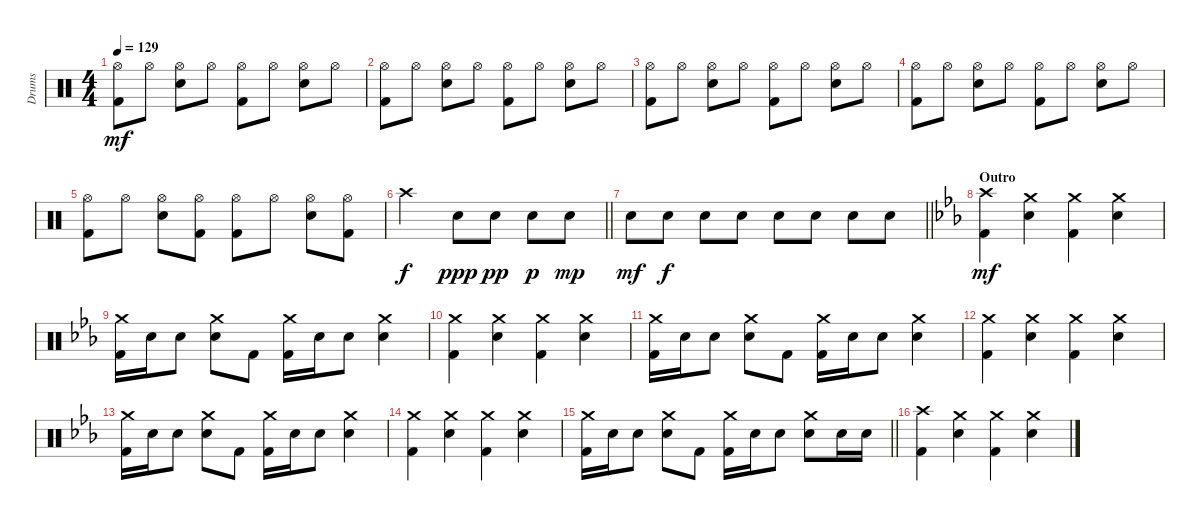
\track ("Drums" "Drums") {instrument percussion}
\staff {score}
\articulation defaults
\ts (4 4)
\tempo 129
\clef neutral
\ks c
("Hi-Hat (open)" "Kick (hit) 2").8{dy mf} "Hi-Hat (open)".8 ("Hi-Hat (open)" "Electric Snare (hit)").8 "Hi-Hat (open)".8 ("Hi-Hat (open)" "Kick (hit) 2").8 "Hi-Hat (open)".8 ("Hi-Hat (open)" "Electric Snare (hit)").8 "Hi-Hat (open)".8 |
("Hi-Hat (open)" "Kick (hit) 2").8 "Hi-Hat (open)".8 ("Hi-Hat (open)" "Electric Snare (hit)").8 "Hi-Hat (open)".8 ("Hi-Hat (open)" "Kick (hit) 2").8 "Hi-Hat (open)".8 ("Hi-Hat (open)" "Electric Snare (hit)").8 "Hi-Hat (open)".8 |
("Hi-Hat (open)" "Kick (hit) 2").8 "Hi-Hat (open)".8 ("Hi-Hat (open)" "Electric Snare (hit)").8 "Hi-Hat (open)".8 ("Hi-Hat (open)" "Kick (hit) 2").8 "Hi-Hat (open)".8 ("Hi-Hat (open)" "Electric Snare (hit)").8 "Hi-Hat (open)".8 |
("Hi-Hat (open)" "Kick (hit) 2").8 "Hi-Hat (open)".8 ("Hi-Hat (open)" "Electric Snare (hit)").8 "Hi-Hat (open)".8 ("Hi-Hat (open)" "Kick (hit) 2").8 "Hi-Hat (open)".8 ("Hi-Hat (open)" "Electric Snare (hit)").8 "Hi-Hat (open)".8 |
("Hi-Hat (open)" "Kick (hit) 2").8 "Hi-Hat (open)".8 ("Hi-Hat (open)" "Electric Snare (hit)").8 ("Hi-Hat (open)" "Kick (hit) 2").8 ("Hi-Hat (open)" "Kick (hit) 2").8 "Hi-Hat (open)".8 ("Hi-Hat (open)" "Electric Snare (hit)").8 ("Hi-Hat (open)" "Kick (hit) 2").8 |
\barLineRight lightlight "Crash high (hit)".2{dy f} "Electric Snare (hit)".8{dy ppp} "Electric Snare (hit)".8{dy pp} "Electric Snare (hit)".8{dy p} "Electric Snare (hit)".8{dy mp}
|
\barLineRight lightlight "Electric Snare (hit)".8{dy mf} "Electric Snare (hit)".8{dy f} "Electric Snare (hit)".8 "Electric Snare (hit)".8 "Electric Snare (hit)".8 "Electric Snare (hit)".8 "Electric Snare (hit)".8 "Electric Snare (hit)".8
|
\section ("" "Outro")
\ks eb
("Crash high (hit)" "Kick (hit) 2").4{dy mf} ("Crash medium (hit)" "Electric Snare (hit)").4 ("Crash medium (hit)" "Kick (hit) 2").4 ("Crash medium (hit)" "Electric Snare (hit)").4 |
("Crash medium (hit)" "Kick (hit) 2").16 "Electric Snare (hit)".16 "Electric Snare (hit)".8 ("Crash medium (hit)" "Electric Snare (hit)").8 "Kick (hit) 2".8 ("Crash medium (hit)" "Kick (hit) 2").16 "Electric Snare (hit)".16 "Electric Snare (hit)".8 ("Crash medium (hit)" "Electric Snare (hit)").4 |
("Crash medium (hit)" "Kick (hit) 2").4 ("Crash medium (hit)" "Electric Snare (hit)").4 ("Crash medium (hit)" "Kick (hit) 2").4 ("Crash medium (hit)" "Electric Snare (hit)").4 |
("Crash medium (hit)" "Kick (hit) 2").16 "Electric Snare (hit)".16 "Electric Snare (hit)".8 ("Crash medium (hit)" "Electric Snare (hit)").8 "Kick (hit) 2".8 ("Crash medium (hit)" "Kick (hit) 2").16 "Electric Snare (hit)".16 "Electric Snare (hit)".8 ("Crash medium (hit)" "Electric Snare (hit)").4 |
("Crash medium (hit)" "Kick (hit) 2").4 ("Crash medium (hit)" "Electric Snare (hit)").4 ("Crash medium (hit)" "Kick (hit) 2").4 ("Crash medium (hit)" "Electric Snare (hit)").4 |
("Crash medium (hit)" "Kick (hit) 2").16 "Electric Snare (hit)".16 "Electric Snare (hit)".8 ("Crash medium (hit)" "Electric Snare (hit)").8 "Kick (hit) 2".8 ("Crash medium (hit)" "Kick (hit) 2").16 "Electric Snare (hit)".16 "Electric Snare (hit)".8 ("Crash medium (hit)" "Electric Snare (hit)").4 |
("Crash medium (hit)" "Kick (hit) 2").4 ("Crash medium (hit)" "Electric Snare (hit)").4 ("Crash medium (hit)" "Kick (hit) 2").4 ("Crash medium (hit)" "Electric Snare (hit)").4 |
\barLineRight lightlight
("Crash medium (hit)" "Kick (hit) 2").16 "Electric Snare (hit)".16 "Electric Snare (hit)".8 ("Crash medium (hit)" "Electric Snare (hit)").8 "Kick (hit) 2".8 ("Crash medium (hit)" "Kick (hit) 2").16 "Electric Snare (hit)".16 "Electric Snare (hit)".8 ("Crash medium (hit)" "Electric Snare (hit)").8 "Electric Snare (hit)".16 "Electric Snare (hit)".16 |
("Crash high (hit)" "Kick (hit) 2").4 ("Crash medium (hit)" "Electric Snare (hit)").4 ("Crash medium (hit)" "Kick (hit) 2").4 ("Crash medium (hit)" "Electric Snare (hit)").4
